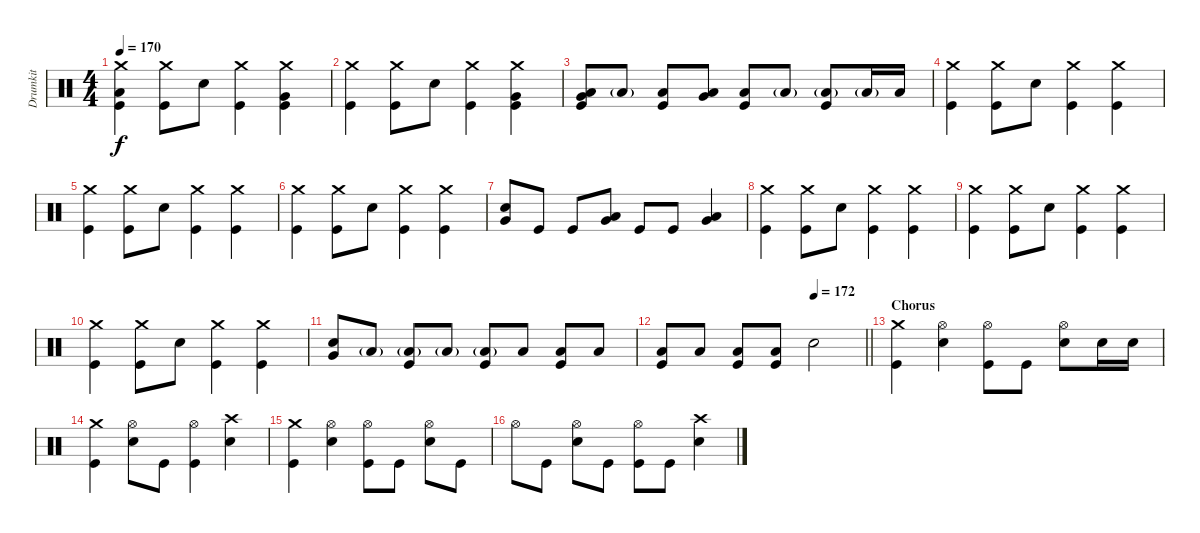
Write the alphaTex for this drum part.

\track ("Drumkit" "Drumkit") {instrument percussion}
\staff {score}
\articulation defaults
\ts (4 4)
\tempo 170
\clef neutral
\ks c
("Crash medium (hit)" "Low Floor Tom (hit)" "Kick (hit)").4{dy f} ("Crash medium (hit)" "Kick (hit)").8 "Snare (hit) 2".8 ("Crash medium (hit)" "Kick (hit)").4 ("Crash medium (hit)" "Very Low Tom (hit)" "Kick (hit)").4 |
("Crash medium (hit)" "Kick (hit)").4 ("Crash medium (hit)" "Kick (hit)").8 "Snare (hit) 2".8 ("Crash medium (hit)" "Kick (hit)").4 ("Crash medium (hit)" "Very Low Tom (hit)" "Kick (hit)").4 |
("Low Tom (hit)" "Very Low Tom (hit)" "Kick (hit)").8 "Low Floor Tom (hit)"{g}.8 ("Low Floor Tom (hit)" "Kick (hit)").8 ("Low Floor Tom (hit)" "Very Low Tom (hit)").8 ("Low Floor Tom (hit)" "Kick (hit)").8 "Low Floor Tom (hit)"{g}.8 ("Low Floor Tom (hit)"{g} "Kick (hit)").8 "Low Floor Tom (hit)"{g}.16 "Low Floor Tom (hit)".16 |
("Crash medium (hit)" "Kick (hit)").4 ("Crash medium (hit)" "Kick (hit)").8 "Snare (hit) 2".8 ("Crash medium (hit)" "Kick (hit)").4 ("Crash medium (hit)" "Kick (hit)").4 |
("Crash medium (hit)" "Kick (hit)").4 ("Crash medium (hit)" "Kick (hit)").8 "Snare (hit) 2".8 ("Crash medium (hit)" "Kick (hit)").4 ("Crash medium (hit)" "Kick (hit)").4 |
("Crash medium (hit)" "Kick (hit)").4 ("Crash medium (hit)" "Kick (hit)").8 "Snare (hit) 2".8 ("Crash medium (hit)" "Kick (hit)").4 ("Crash medium (hit)" "Kick (hit)").4 |
("Very Low Tom (hit)" "Snare (hit) 2").8 "Kick (hit)".8 "Kick (hit)".8 ("Very Low Tom (hit)" "Low Tom (hit)").8 "Kick (hit)".8 "Kick (hit)".8 ("Very Low Tom (hit)" "Low Floor Tom (hit)").4 |
("Crash medium (hit)" "Kick (hit)").4 ("Crash medium (hit)" "Kick (hit)").8 "Snare (hit) 2".8 ("Crash medium (hit)" "Kick (hit)").4 ("Crash medium (hit)" "Kick (hit)").4 |
("Crash medium (hit)" "Kick (hit)").4 ("Crash medium (hit)" "Kick (hit)").8 "Snare (hit) 2".8 ("Crash medium (hit)" "Kick (hit)").4 ("Crash medium (hit)" "Kick (hit)").4 |
("Crash medium (hit)" "Kick (hit)").4 ("Crash medium (hit)" "Kick (hit)").8 "Snare (hit) 2".8 ("Crash medium (hit)" "Kick (hit)").4 ("Crash medium (hit)" "Kick (hit)").4 |
("Very Low Tom (hit)" "Snare (hit) 2").8 "Low Floor Tom (hit)"{g}.8 ("Low Floor Tom (hit)"{g} "Kick (hit)").8 "Low Floor Tom (hit)"{g}.8 ("Low Floor Tom (hit)"{g} "Kick (hit)").8 "Low Floor Tom (hit)".8 ("Low Floor Tom (hit)" "Kick (hit)").8 "Low Floor Tom (hit)".8 |
\tempo (172 0.75)
\barLineRight lightlight
("Low Floor Tom (hit)" "Kick (hit)").8 "Low Floor Tom (hit)".8 ("Low Floor Tom (hit)" "Kick (hit)").8 ("Low Floor Tom (hit)" "Kick (hit)").8 "Snare (hit) 2".2 |
\section ("" "Chorus")
("Crash medium (hit)" "Kick (hit)").4 ("Hi-Hat (open)" "Snare (hit) 2").4 ("Hi-Hat (open)" "Kick (hit)").8 "Kick (hit)".8 ("Hi-Hat (open)" "Snare (hit) 2").8 "Snare (hit) 2".16 "Snare (hit) 2".16 |
("Crash medium (hit)" "Kick (hit)").4 ("Hi-Hat (open)" "Snare (hit) 2").8 "Kick (hit)".8 ("Hi-Hat (open)" "Kick (hit)").4 ("Crash high (hit)" "Snare (hit) 2").4 |
("Crash medium (hit)" "Kick (hit)").4 ("Hi-Hat (open)" "Snare (hit) 2").4 ("Hi-Hat (open)" "Kick (hit)").8 "Kick (hit)".8 ("Hi-Hat (open)" "Snare (hit) 2").8 "Kick (hit)".8 |
"Hi-Hat (open)".8 "Kick (hit)".8 ("Hi-Hat (open)" "Snare (hit) 2").8 "Kick (hit)".8 ("Hi-Hat (open)" "Kick (hit)").8 "Kick (hit)".8 ("Crash high (hit)" "Snare (hit) 2").4
